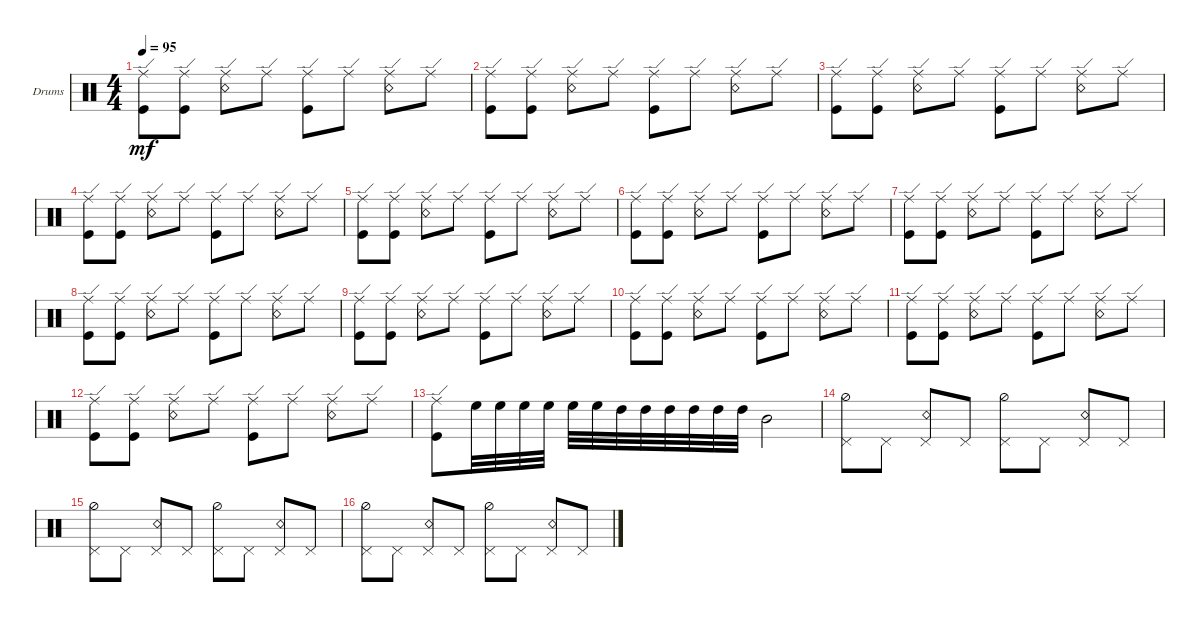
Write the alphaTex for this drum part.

\bracketExtendMode groupsimilarinstruments
\firstSystemTrackNameOrientation horizontal
\otherSystemsTrackNameOrientation horizontal
\track ("Drumkit" "Drums") {instrument percussion}
\staff {score}
\articulation defaults
\ts (4 4)
\tempo 95
\clef neutral
\ks c
("Kick (hit)" "Ride (edge)").8{dy mf} ("Kick (hit)" "Ride (edge)").8 ("Snare (rim shot)" "Ride (edge)").8 "Ride (edge)".8 ("Kick (hit)" "Ride (edge)").8 "Ride (edge)".8 ("Snare (rim shot)" "Ride (edge)").8 "Ride (edge)".8 |
("Kick (hit)" "Ride (edge)").8 ("Kick (hit)" "Ride (edge)").8 ("Snare (rim shot)" "Ride (edge)").8 "Ride (edge)".8 ("Kick (hit)" "Ride (edge)").8 "Ride (edge)".8 ("Snare (rim shot)" "Ride (edge)").8 "Ride (edge)".8 |
("Kick (hit)" "Ride (edge)").8 ("Kick (hit)" "Ride (edge)").8 ("Snare (rim shot)" "Ride (edge)").8 "Ride (edge)".8 ("Kick (hit)" "Ride (edge)").8 "Ride (edge)".8 ("Snare (rim shot)" "Ride (edge)").8 "Ride (edge)".8 |
("Kick (hit)" "Ride (edge)").8 ("Kick (hit)" "Ride (edge)").8 ("Snare (rim shot)" "Ride (edge)").8 "Ride (edge)".8 ("Kick (hit)" "Ride (edge)").8 "Ride (edge)".8 ("Snare (rim shot)" "Ride (edge)").8 "Ride (edge)".8 |
("Kick (hit)" "Ride (edge)").8 ("Kick (hit)" "Ride (edge)").8 ("Snare (rim shot)" "Ride (edge)").8 "Ride (edge)".8 ("Kick (hit)" "Ride (edge)").8 "Ride (edge)".8 ("Snare (rim shot)" "Ride (edge)").8 "Ride (edge)".8 |
("Kick (hit)" "Ride (edge)").8 ("Kick (hit)" "Ride (edge)").8 ("Snare (rim shot)" "Ride (edge)").8 "Ride (edge)".8 ("Kick (hit)" "Ride (edge)").8 "Ride (edge)".8 ("Snare (rim shot)" "Ride (edge)").8 "Ride (edge)".8 |
("Kick (hit)" "Ride (edge)").8 ("Kick (hit)" "Ride (edge)").8 ("Snare (rim shot)" "Ride (edge)").8 "Ride (edge)".8 ("Kick (hit)" "Ride (edge)").8 "Ride (edge)".8 ("Snare (rim shot)" "Ride (edge)").8 "Ride (edge)".8 |
("Kick (hit)" "Ride (edge)").8 ("Kick (hit)" "Ride (edge)").8 ("Snare (rim shot)" "Ride (edge)").8 "Ride (edge)".8 ("Kick (hit)" "Ride (edge)").8 "Ride (edge)".8 ("Snare (rim shot)" "Ride (edge)").8 "Ride (edge)".8 |
("Kick (hit)" "Ride (edge)").8 ("Kick (hit)" "Ride (edge)").8 ("Snare (rim shot)" "Ride (edge)").8 "Ride (edge)".8 ("Kick (hit)" "Ride (edge)").8 "Ride (edge)".8 ("Snare (rim shot)" "Ride (edge)").8 "Ride (edge)".8 |
("Kick (hit)" "Ride (edge)").8 ("Kick (hit)" "Ride (edge)").8 ("Snare (rim shot)" "Ride (edge)").8 "Ride (edge)".8 ("Kick (hit)" "Ride (edge)").8 "Ride (edge)".8 ("Snare (rim shot)" "Ride (edge)").8 "Ride (edge)".8 |
("Kick (hit)" "Ride (edge)").8 ("Kick (hit)" "Ride (edge)").8 ("Snare (rim shot)" "Ride (edge)").8 "Ride (edge)".8 ("Kick (hit)" "Ride (edge)").8 "Ride (edge)".8 ("Snare (rim shot)" "Ride (edge)").8 "Ride (edge)".8 |
("Kick (hit)" "Ride (edge)").8 ("Kick (hit)" "Ride (edge)").8 ("Snare (rim shot)" "Ride (edge)").8 "Ride (edge)".8 ("Kick (hit)" "Ride (edge)").8 "Ride (edge)".8 ("Snare (rim shot)" "Ride (edge)").8 "Ride (edge)".8 |
("Kick (hit)" "Ride (edge)").8 "High Floor Tom (hit)".32 "High Floor Tom (hit)".32 "High Floor Tom (hit)".32 "High Floor Tom (hit)".32 "High Floor Tom (hit)".32 "High Floor Tom (hit)".32 "High Tom (hit)".32 "High Tom (hit)".32 "High Tom (hit)".32 "High Tom (hit)".32 "High Tom (hit)".32 "High Tom (hit)".32 "Mid Tom (hit)".2 |
("Pedal Hi-Hat (hit)" "Hi-Hat (half)").8 "Pedal Hi-Hat (hit)".8 ("Pedal Hi-Hat (hit)" "Snare (rim shot)").8 "Pedal Hi-Hat (hit)".8 ("Pedal Hi-Hat (hit)" "Hi-Hat (half)").8 "Pedal Hi-Hat (hit)".8 ("Pedal Hi-Hat (hit)" "Snare (rim shot)").8 "Pedal Hi-Hat (hit)".8 |
("Pedal Hi-Hat (hit)" "Hi-Hat (half)").8 "Pedal Hi-Hat (hit)".8 ("Pedal Hi-Hat (hit)" "Snare (rim shot)").8 "Pedal Hi-Hat (hit)".8 ("Pedal Hi-Hat (hit)" "Hi-Hat (half)").8 "Pedal Hi-Hat (hit)".8 ("Pedal Hi-Hat (hit)" "Snare (rim shot)").8 "Pedal Hi-Hat (hit)".8 |
("Pedal Hi-Hat (hit)" "Hi-Hat (half)").8 "Pedal Hi-Hat (hit)".8 ("Pedal Hi-Hat (hit)" "Snare (rim shot)").8 "Pedal Hi-Hat (hit)".8 ("Pedal Hi-Hat (hit)" "Hi-Hat (half)").8 "Pedal Hi-Hat (hit)".8 ("Pedal Hi-Hat (hit)" "Snare (rim shot)").8 "Pedal Hi-Hat (hit)".8
